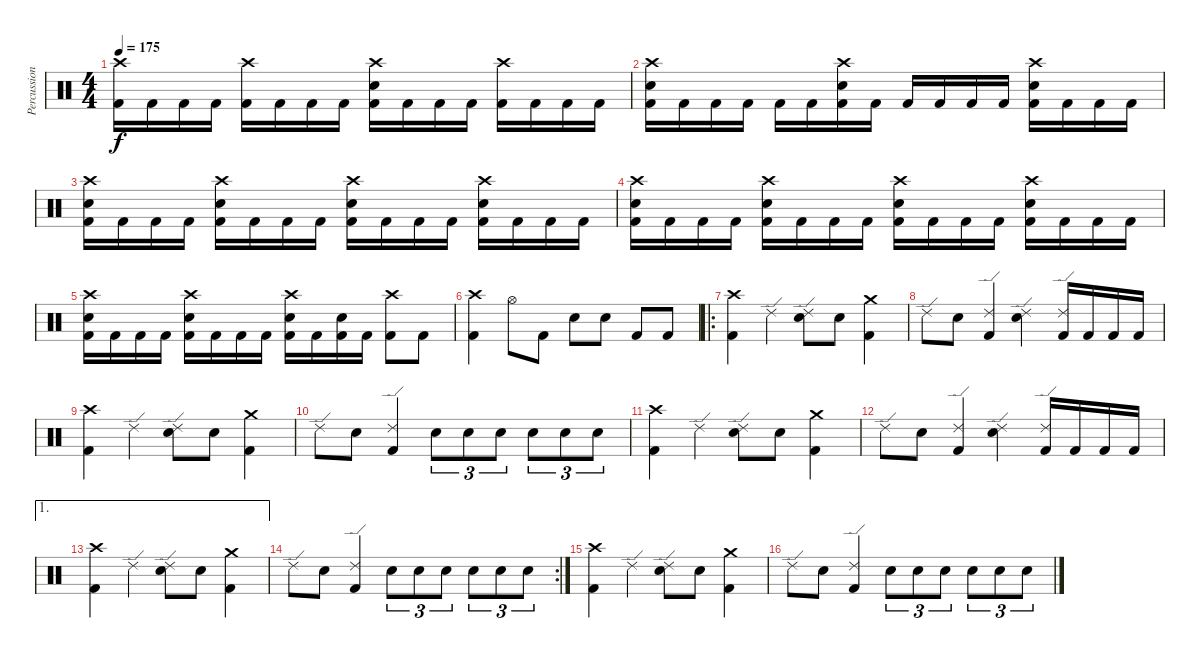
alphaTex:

\track ("Percussion" "Percussion") {instrument percussion}
\staff {score}
\articulation defaults
\ts (4 4)
\tempo 175
\clef neutral
\ks c
("Crash high (hit)" "Kick (hit) 2").16{dy f} "Kick (hit) 2".16 "Kick (hit) 2".16 "Kick (hit) 2".16 ("Crash high (hit)" "Kick (hit) 2").16 "Kick (hit) 2".16 "Kick (hit) 2".16 "Kick (hit) 2".16 ("Crash high (hit)" "Snare (hit) 2" "Kick (hit) 2").16 "Kick (hit) 2".16 "Kick (hit) 2".16 "Kick (hit) 2".16 ("Crash high (hit)" "Kick (hit) 2").16 "Kick (hit) 2".16 "Kick (hit) 2".16 "Kick (hit) 2".16 |
("Crash high (hit)" "Snare (hit) 2" "Kick (hit) 2").16 "Kick (hit) 2".16 "Kick (hit) 2".16 "Kick (hit) 2".16 "Kick (hit) 2".16 "Kick (hit) 2".16 ("Crash high (hit)" "Snare (hit) 2" "Kick (hit) 2").16 "Kick (hit) 2".16 "Kick (hit) 2".16 "Kick (hit) 2".16 "Kick (hit) 2".16 "Kick (hit) 2".16 ("Crash high (hit)" "Snare (hit) 2" "Kick (hit) 2").16 "Kick (hit) 2".16 "Kick (hit) 2".16 "Kick (hit) 2".16 |
("Crash high (hit)" "Snare (hit) 2" "Kick (hit) 2").16 "Kick (hit) 2".16 "Kick (hit) 2".16 "Kick (hit) 2".16 ("Crash high (hit)" "Snare (hit) 2" "Kick (hit) 2").16 "Kick (hit) 2".16 "Kick (hit) 2".16 "Kick (hit) 2".16 ("Crash high (hit)" "Snare (hit) 2" "Kick (hit) 2").16 "Kick (hit) 2".16 "Kick (hit) 2".16 "Kick (hit) 2".16 ("Crash high (hit)" "Snare (hit) 2" "Kick (hit) 2").16 "Kick (hit) 2".16 "Kick (hit) 2".16 "Kick (hit) 2".16 |
("Crash high (hit)" "Snare (hit) 2" "Kick (hit) 2").16 "Kick (hit) 2".16 "Kick (hit) 2".16 "Kick (hit) 2".16 ("Crash high (hit)" "Snare (hit) 2" "Kick (hit) 2").16 "Kick (hit) 2".16 "Kick (hit) 2".16 "Kick (hit) 2".16 ("Crash high (hit)" "Snare (hit) 2" "Kick (hit) 2").16 "Kick (hit) 2".16 "Kick (hit) 2".16 "Kick (hit) 2".16 ("Crash high (hit)" "Snare (hit) 2" "Kick (hit) 2").16 "Kick (hit) 2".16 "Kick (hit) 2".16 "Kick (hit) 2".16 |
("Crash high (hit)" "Snare (hit) 2" "Kick (hit) 2").16 "Kick (hit) 2".16 "Kick (hit) 2".16 "Kick (hit) 2".16 ("Crash high (hit)" "Snare (hit) 2" "Kick (hit) 2").16 "Kick (hit) 2".16 "Kick (hit) 2".16 "Kick (hit) 2".16 ("Crash high (hit)" "Snare (hit) 2" "Kick (hit) 2").16 "Kick (hit) 2".16 ("Snare (hit) 2" "Kick (hit) 2").16 "Kick (hit) 2".16 ("Crash high (hit)" "Kick (hit) 2").8 "Kick (hit) 2".8 |
("Crash high (hit)" "Kick (hit) 2").4 "Hi-Hat (open)".8 "Kick (hit) 2".8 "Snare (hit) 2".8 "Snare (hit) 2".8 "Kick (hit) 2".8 "Kick (hit) 2".8 |
\ro
("Crash high (hit)" "Kick (hit) 2").4 "Ride (edge) 2".4 ("Ride (edge) 2" "Snare (hit) 2").8 "Snare (hit) 2".8 ("Crash medium (hit)" "Kick (hit) 2").4 |
"Ride (edge) 2".8 "Snare (hit) 2".8 ("Ride (edge) 2" "Kick (hit) 2").4 ("Ride (edge) 2" "Snare (hit) 2").4 ("Ride (edge) 2" "Kick (hit) 2").16 "Kick (hit) 2".16 "Kick (hit) 2".16 "Kick (hit) 2".16 |
("Crash high (hit)" "Kick (hit) 2").4 "Ride (edge) 2".4 ("Ride (edge) 2" "Snare (hit) 2").8 "Snare (hit) 2".8 ("Crash medium (hit)" "Kick (hit) 2").4 |
"Ride (edge) 2".8 "Snare (hit) 2".8 ("Ride (edge) 2" "Kick (hit) 2").4 "Snare (hit) 2".8{tu (3 2)} "Snare (hit) 2".8{tu (3 2)} "Snare (hit) 2".8{tu (3 2)} "Snare (hit) 2".8{tu (3 2)} "Snare (hit) 2".8{tu (3 2)} "Snare (hit) 2".8{tu (3 2)} |
("Crash high (hit)" "Kick (hit) 2").4 "Ride (edge) 2".4 ("Ride (edge) 2" "Snare (hit) 2").8 "Snare (hit) 2".8 ("Crash medium (hit)" "Kick (hit) 2").4 |
"Ride (edge) 2".8 "Snare (hit) 2".8 ("Ride (edge) 2" "Kick (hit) 2").4 ("Ride (edge) 2" "Snare (hit) 2").4 ("Ride (edge) 2" "Kick (hit) 2").16 "Kick (hit) 2".16 "Kick (hit) 2".16 "Kick (hit) 2".16 |
\ae 1
("Crash high (hit)" "Kick (hit) 2").4 "Ride (edge) 2".4 ("Ride (edge) 2" "Snare (hit) 2").8 "Snare (hit) 2".8 ("Crash medium (hit)" "Kick (hit) 2").4 |
\rc 2 "Ride (edge) 2".8 "Snare (hit) 2".8
("Ride (edge) 2" "Kick (hit) 2").4 "Snare (hit) 2".8{tu (3 2)} "Snare (hit) 2".8{tu (3 2)} "Snare (hit) 2".8{tu (3 2)} "Snare (hit) 2".8{tu (3 2)} "Snare (hit) 2".8{tu (3 2)} "Snare (hit) 2".8{tu (3 2)} |
("Crash high (hit)" "Kick (hit) 2").4 "Ride (edge) 2".4 ("Ride (edge) 2" "Snare (hit) 2").8 "Snare (hit) 2".8 ("Crash medium (hit)" "Kick (hit) 2").4 |
"Ride (edge) 2".8 "Snare (hit) 2".8 ("Ride (edge) 2" "Kick (hit) 2").4 "Snare (hit) 2".8{tu (3 2)} "Snare (hit) 2".8{tu (3 2)} "Snare (hit) 2".8{tu (3 2)} "Snare (hit) 2".8{tu (3 2)} "Snare (hit) 2".8{tu (3 2)} "Snare (hit) 2".8{tu (3 2)}
